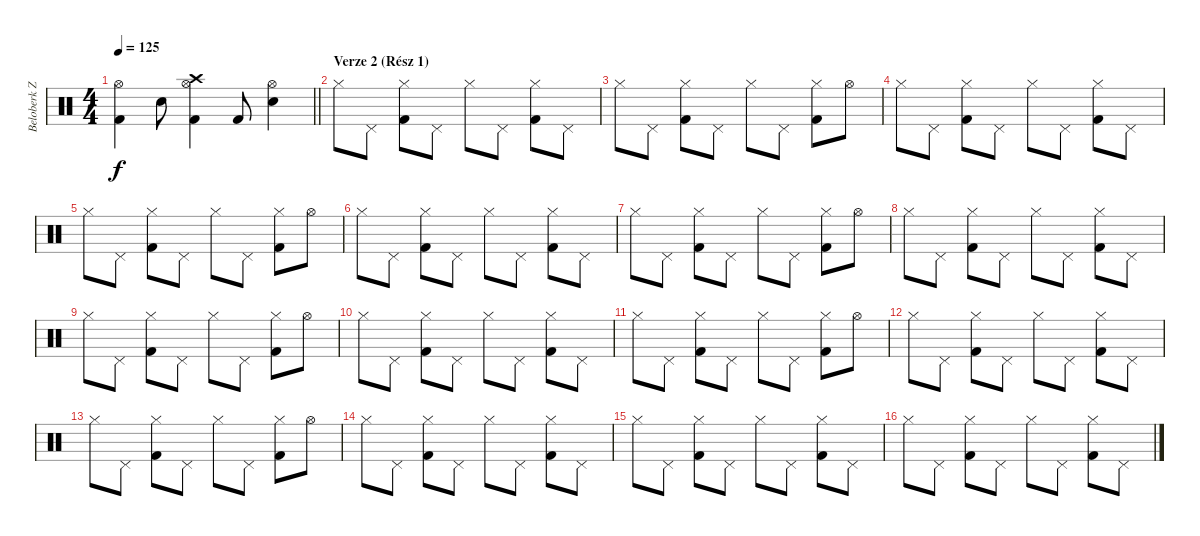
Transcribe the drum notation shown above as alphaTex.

\track ("Beloberk Zsolt - Dobok" "Beloberk Z") {instrument percussion}
\staff {score}
\articulation defaults
\ts (4 4)
\tempo 125
\clef neutral
\barLineRight lightlight
\ks c
("Hi-Hat (open)" "Kick (hit) 2").4{dy f} "Electric Snare (hit)".8 ("Crash high (hit)" "Hi-Hat (open)" "Kick (hit) 2").4 "Kick (hit) 2".8 ("Hi-Hat (open)" "Electric Snare (hit)").4 |
\section ("" "Verze 2 (Rész 1)")
"Hi-Hat (closed)".8 "Pedal Hi-Hat (hit)".8 ("Hi-Hat (closed)" "Kick (hit) 2").8 "Pedal Hi-Hat (hit)".8 "Hi-Hat (closed)".8 "Pedal Hi-Hat (hit)".8 ("Hi-Hat (closed)" "Kick (hit) 2").8 "Pedal Hi-Hat (hit)".8 |
"Hi-Hat (closed)".8 "Pedal Hi-Hat (hit)".8 ("Hi-Hat (closed)" "Kick (hit) 2").8 "Pedal Hi-Hat (hit)".8 "Hi-Hat (closed)".8 "Pedal Hi-Hat (hit)".8 ("Hi-Hat (closed)" "Kick (hit) 2").8 "Hi-Hat (open)".8 |
"Hi-Hat (closed)".8 "Pedal Hi-Hat (hit)".8 ("Hi-Hat (closed)" "Kick (hit) 2").8 "Pedal Hi-Hat (hit)".8 "Hi-Hat (closed)".8 "Pedal Hi-Hat (hit)".8 ("Hi-Hat (closed)" "Kick (hit) 2").8 "Pedal Hi-Hat (hit)".8 |
"Hi-Hat (closed)".8 "Pedal Hi-Hat (hit)".8 ("Hi-Hat (closed)" "Kick (hit) 2").8 "Pedal Hi-Hat (hit)".8 "Hi-Hat (closed)".8 "Pedal Hi-Hat (hit)".8 ("Hi-Hat (closed)" "Kick (hit) 2").8 "Hi-Hat (open)".8 |
"Hi-Hat (closed)".8 "Pedal Hi-Hat (hit)".8 ("Hi-Hat (closed)" "Kick (hit) 2").8 "Pedal Hi-Hat (hit)".8 "Hi-Hat (closed)".8 "Pedal Hi-Hat (hit)".8 ("Hi-Hat (closed)" "Kick (hit) 2").8 "Pedal Hi-Hat (hit)".8 |
"Hi-Hat (closed)".8 "Pedal Hi-Hat (hit)".8 ("Hi-Hat (closed)" "Kick (hit) 2").8 "Pedal Hi-Hat (hit)".8 "Hi-Hat (closed)".8 "Pedal Hi-Hat (hit)".8 ("Hi-Hat (closed)" "Kick (hit) 2").8 "Hi-Hat (open)".8 |
"Hi-Hat (closed)".8 "Pedal Hi-Hat (hit)".8 ("Hi-Hat (closed)" "Kick (hit) 2").8 "Pedal Hi-Hat (hit)".8 "Hi-Hat (closed)".8 "Pedal Hi-Hat (hit)".8 ("Hi-Hat (closed)" "Kick (hit) 2").8 "Pedal Hi-Hat (hit)".8 |
"Hi-Hat (closed)".8 "Pedal Hi-Hat (hit)".8 ("Hi-Hat (closed)" "Kick (hit) 2").8 "Pedal Hi-Hat (hit)".8 "Hi-Hat (closed)".8 "Pedal Hi-Hat (hit)".8 ("Hi-Hat (closed)" "Kick (hit) 2").8 "Hi-Hat (open)".8 |
"Hi-Hat (closed)".8 "Pedal Hi-Hat (hit)".8 ("Hi-Hat (closed)" "Kick (hit) 2").8 "Pedal Hi-Hat (hit)".8 "Hi-Hat (closed)".8 "Pedal Hi-Hat (hit)".8 ("Hi-Hat (closed)" "Kick (hit) 2").8 "Pedal Hi-Hat (hit)".8 |
"Hi-Hat (closed)".8 "Pedal Hi-Hat (hit)".8 ("Hi-Hat (closed)" "Kick (hit) 2").8 "Pedal Hi-Hat (hit)".8 "Hi-Hat (closed)".8 "Pedal Hi-Hat (hit)".8 ("Hi-Hat (closed)" "Kick (hit) 2").8 "Hi-Hat (open)".8 |
"Hi-Hat (closed)".8 "Pedal Hi-Hat (hit)".8 ("Hi-Hat (closed)" "Kick (hit) 2").8 "Pedal Hi-Hat (hit)".8 "Hi-Hat (closed)".8 "Pedal Hi-Hat (hit)".8 ("Hi-Hat (closed)" "Kick (hit) 2").8 "Pedal Hi-Hat (hit)".8 |
"Hi-Hat (closed)".8 "Pedal Hi-Hat (hit)".8 ("Hi-Hat (closed)" "Kick (hit) 2").8 "Pedal Hi-Hat (hit)".8 "Hi-Hat (closed)".8 "Pedal Hi-Hat (hit)".8 ("Hi-Hat (closed)" "Kick (hit) 2").8 "Hi-Hat (open)".8 |
"Hi-Hat (closed)".8 "Pedal Hi-Hat (hit)".8 ("Hi-Hat (closed)" "Kick (hit) 2").8 "Pedal Hi-Hat (hit)".8 "Hi-Hat (closed)".8 "Pedal Hi-Hat (hit)".8 ("Hi-Hat (closed)" "Kick (hit) 2").8 "Pedal Hi-Hat (hit)".8 |
"Hi-Hat (closed)".8 "Pedal Hi-Hat (hit)".8 ("Hi-Hat (closed)" "Kick (hit) 2").8 "Pedal Hi-Hat (hit)".8 "Hi-Hat (closed)".8 "Pedal Hi-Hat (hit)".8 ("Hi-Hat (closed)" "Kick (hit) 2").8 "Pedal Hi-Hat (hit)".8 |
"Hi-Hat (closed)".8 "Pedal Hi-Hat (hit)".8 ("Hi-Hat (closed)" "Kick (hit) 2").8 "Pedal Hi-Hat (hit)".8 "Hi-Hat (closed)".8 "Pedal Hi-Hat (hit)".8 ("Hi-Hat (closed)" "Kick (hit) 2").8 "Pedal Hi-Hat (hit)".8
